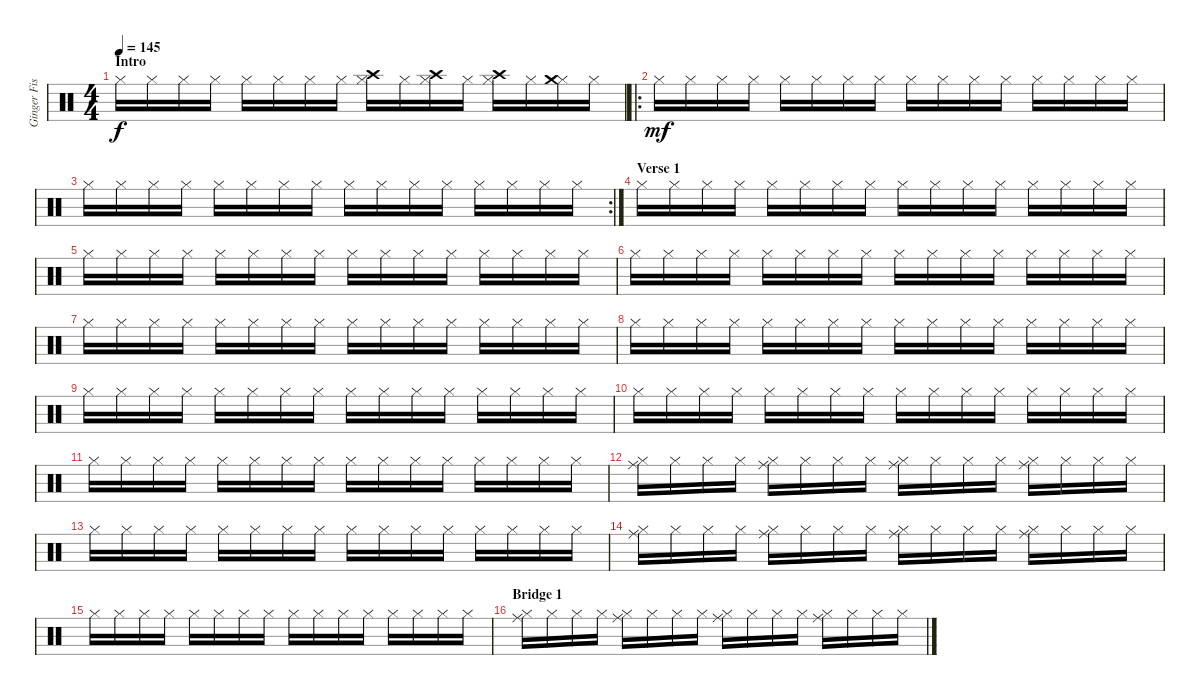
\track ("Ginger Fish [Aditional Drums]" "Ginger Fis") {instrument percussion}
\staff {score}
\articulation defaults
\ts (4 4)
\section ("" "Intro")
\tempo 145
\clef neutral
\ks c "Hi-Hat (closed)".16{dy f} "Hi-Hat (closed)".16 "Hi-Hat (closed)".16 "Hi-Hat (closed)".16 "Hi-Hat (closed)".16 "Hi-Hat (closed)".16 "Hi-Hat (closed)".16 "Hi-Hat (closed)".16
("Hi-Hat (closed)" "Crash high (hit)").16 "Hi-Hat (closed)".16 ("Hi-Hat (closed)" "Crash high (hit)").16 "Hi-Hat (closed)".16 ("Hi-Hat (closed)" "Crash high (hit)").16 "Hi-Hat (closed)".16 ("Hi-Hat (closed)" "Crash medium (hit)").16 "Hi-Hat (closed)".16 |
\ro "Hi-Hat (closed)".16{dy mf} "Hi-Hat (closed)".16 "Hi-Hat (closed)".16 "Hi-Hat (closed)".16 "Hi-Hat (closed)".16 "Hi-Hat (closed)".16 "Hi-Hat (closed)".16 "Hi-Hat (closed)".16 "Hi-Hat (closed)".16 "Hi-Hat (closed)".16 "Hi-Hat (closed)".16 "Hi-Hat (closed)".16 "Hi-Hat (closed)".16 "Hi-Hat (closed)".16 "Hi-Hat (closed)".16 "Hi-Hat (closed)".16
|
\rc 2 "Hi-Hat (closed)".16 "Hi-Hat (closed)".16 "Hi-Hat (closed)".16 "Hi-Hat (closed)".16 "Hi-Hat (closed)".16 "Hi-Hat (closed)".16 "Hi-Hat (closed)".16 "Hi-Hat (closed)".16 "Hi-Hat (closed)".16 "Hi-Hat (closed)".16 "Hi-Hat (closed)".16 "Hi-Hat (closed)".16 "Hi-Hat (closed)".16 "Hi-Hat (closed)".16 "Hi-Hat (closed)".16 "Hi-Hat (closed)".16
|
\section ("" "Verse 1")
"Hi-Hat (closed)".16 "Hi-Hat (closed)".16 "Hi-Hat (closed)".16 "Hi-Hat (closed)".16 "Hi-Hat (closed)".16 "Hi-Hat (closed)".16 "Hi-Hat (closed)".16 "Hi-Hat (closed)".16 "Hi-Hat (closed)".16 "Hi-Hat (closed)".16 "Hi-Hat (closed)".16 "Hi-Hat (closed)".16 "Hi-Hat (closed)".16 "Hi-Hat (closed)".16 "Hi-Hat (closed)".16 "Hi-Hat (closed)".16 |
"Hi-Hat (closed)".16 "Hi-Hat (closed)".16 "Hi-Hat (closed)".16 "Hi-Hat (closed)".16 "Hi-Hat (closed)".16 "Hi-Hat (closed)".16 "Hi-Hat (closed)".16 "Hi-Hat (closed)".16 "Hi-Hat (closed)".16 "Hi-Hat (closed)".16 "Hi-Hat (closed)".16 "Hi-Hat (closed)".16 "Hi-Hat (closed)".16 "Hi-Hat (closed)".16 "Hi-Hat (closed)".16 "Hi-Hat (closed)".16 |
"Hi-Hat (closed)".16 "Hi-Hat (closed)".16 "Hi-Hat (closed)".16 "Hi-Hat (closed)".16 "Hi-Hat (closed)".16 "Hi-Hat (closed)".16 "Hi-Hat (closed)".16 "Hi-Hat (closed)".16 "Hi-Hat (closed)".16 "Hi-Hat (closed)".16 "Hi-Hat (closed)".16 "Hi-Hat (closed)".16 "Hi-Hat (closed)".16 "Hi-Hat (closed)".16 "Hi-Hat (closed)".16 "Hi-Hat (closed)".16 |
"Hi-Hat (closed)".16 "Hi-Hat (closed)".16 "Hi-Hat (closed)".16 "Hi-Hat (closed)".16 "Hi-Hat (closed)".16 "Hi-Hat (closed)".16 "Hi-Hat (closed)".16 "Hi-Hat (closed)".16 "Hi-Hat (closed)".16 "Hi-Hat (closed)".16 "Hi-Hat (closed)".16 "Hi-Hat (closed)".16 "Hi-Hat (closed)".16 "Hi-Hat (closed)".16 "Hi-Hat (closed)".16 "Hi-Hat (closed)".16 |
"Hi-Hat (closed)".16 "Hi-Hat (closed)".16 "Hi-Hat (closed)".16 "Hi-Hat (closed)".16 "Hi-Hat (closed)".16 "Hi-Hat (closed)".16 "Hi-Hat (closed)".16 "Hi-Hat (closed)".16 "Hi-Hat (closed)".16 "Hi-Hat (closed)".16 "Hi-Hat (closed)".16 "Hi-Hat (closed)".16 "Hi-Hat (closed)".16 "Hi-Hat (closed)".16 "Hi-Hat (closed)".16 "Hi-Hat (closed)".16 |
"Hi-Hat (closed)".16 "Hi-Hat (closed)".16 "Hi-Hat (closed)".16 "Hi-Hat (closed)".16 "Hi-Hat (closed)".16 "Hi-Hat (closed)".16 "Hi-Hat (closed)".16 "Hi-Hat (closed)".16 "Hi-Hat (closed)".16 "Hi-Hat (closed)".16 "Hi-Hat (closed)".16 "Hi-Hat (closed)".16 "Hi-Hat (closed)".16 "Hi-Hat (closed)".16 "Hi-Hat (closed)".16 "Hi-Hat (closed)".16 |
"Hi-Hat (closed)".16 "Hi-Hat (closed)".16 "Hi-Hat (closed)".16 "Hi-Hat (closed)".16 "Hi-Hat (closed)".16 "Hi-Hat (closed)".16 "Hi-Hat (closed)".16 "Hi-Hat (closed)".16 "Hi-Hat (closed)".16 "Hi-Hat (closed)".16 "Hi-Hat (closed)".16 "Hi-Hat (closed)".16 "Hi-Hat (closed)".16 "Hi-Hat (closed)".16 "Hi-Hat (closed)".16 "Hi-Hat (closed)".16 |
"Hi-Hat (closed)".16 "Hi-Hat (closed)".16 "Hi-Hat (closed)".16 "Hi-Hat (closed)".16 "Hi-Hat (closed)".16 "Hi-Hat (closed)".16 "Hi-Hat (closed)".16 "Hi-Hat (closed)".16 "Hi-Hat (closed)".16 "Hi-Hat (closed)".16 "Hi-Hat (closed)".16 "Hi-Hat (closed)".16 "Hi-Hat (closed)".16 "Hi-Hat (closed)".16 "Hi-Hat (closed)".16 "Hi-Hat (closed)".16 |
("Hi-Hat (closed)" "Ride (middle)").16 "Hi-Hat (closed)".16 "Hi-Hat (closed)".16 "Hi-Hat (closed)".16 ("Hi-Hat (closed)" "Ride (middle)").16 "Hi-Hat (closed)".16 "Hi-Hat (closed)".16 "Hi-Hat (closed)".16 ("Hi-Hat (closed)" "Ride (middle)").16 "Hi-Hat (closed)".16 "Hi-Hat (closed)".16 "Hi-Hat (closed)".16 ("Hi-Hat (closed)" "Ride (middle)").16 "Hi-Hat (closed)".16 "Hi-Hat (closed)".16 "Hi-Hat (closed)".16 |
"Hi-Hat (closed)".16 "Hi-Hat (closed)".16 "Hi-Hat (closed)".16 "Hi-Hat (closed)".16 "Hi-Hat (closed)".16 "Hi-Hat (closed)".16 "Hi-Hat (closed)".16 "Hi-Hat (closed)".16 "Hi-Hat (closed)".16 "Hi-Hat (closed)".16 "Hi-Hat (closed)".16 "Hi-Hat (closed)".16 "Hi-Hat (closed)".16 "Hi-Hat (closed)".16 "Hi-Hat (closed)".16 "Hi-Hat (closed)".16 |
("Hi-Hat (closed)" "Ride (middle)").16 "Hi-Hat (closed)".16 "Hi-Hat (closed)".16 "Hi-Hat (closed)".16 ("Hi-Hat (closed)" "Ride (middle)").16 "Hi-Hat (closed)".16 "Hi-Hat (closed)".16 "Hi-Hat (closed)".16 ("Hi-Hat (closed)" "Ride (middle)").16 "Hi-Hat (closed)".16 "Hi-Hat (closed)".16 "Hi-Hat (closed)".16 ("Hi-Hat (closed)" "Ride (middle)").16 "Hi-Hat (closed)".16 "Hi-Hat (closed)".16 "Hi-Hat (closed)".16 |
"Hi-Hat (closed)".16 "Hi-Hat (closed)".16 "Hi-Hat (closed)".16 "Hi-Hat (closed)".16 "Hi-Hat (closed)".16 "Hi-Hat (closed)".16 "Hi-Hat (closed)".16 "Hi-Hat (closed)".16 "Hi-Hat (closed)".16 "Hi-Hat (closed)".16 "Hi-Hat (closed)".16 "Hi-Hat (closed)".16 "Hi-Hat (closed)".16 "Hi-Hat (closed)".16 "Hi-Hat (closed)".16 "Hi-Hat (closed)".16 |
\section ("" "Bridge 1")
("Hi-Hat (closed)" "Ride (middle)").16 "Hi-Hat (closed)".16 "Hi-Hat (closed)".16 "Hi-Hat (closed)".16 ("Hi-Hat (closed)" "Ride (middle)").16 "Hi-Hat (closed)".16 "Hi-Hat (closed)".16 "Hi-Hat (closed)".16 ("Hi-Hat (closed)" "Ride (middle)").16 "Hi-Hat (closed)".16 "Hi-Hat (closed)".16 "Hi-Hat (closed)".16 ("Hi-Hat (closed)" "Ride (middle)").16 "Hi-Hat (closed)".16 "Hi-Hat (closed)".16 "Hi-Hat (closed)".16
